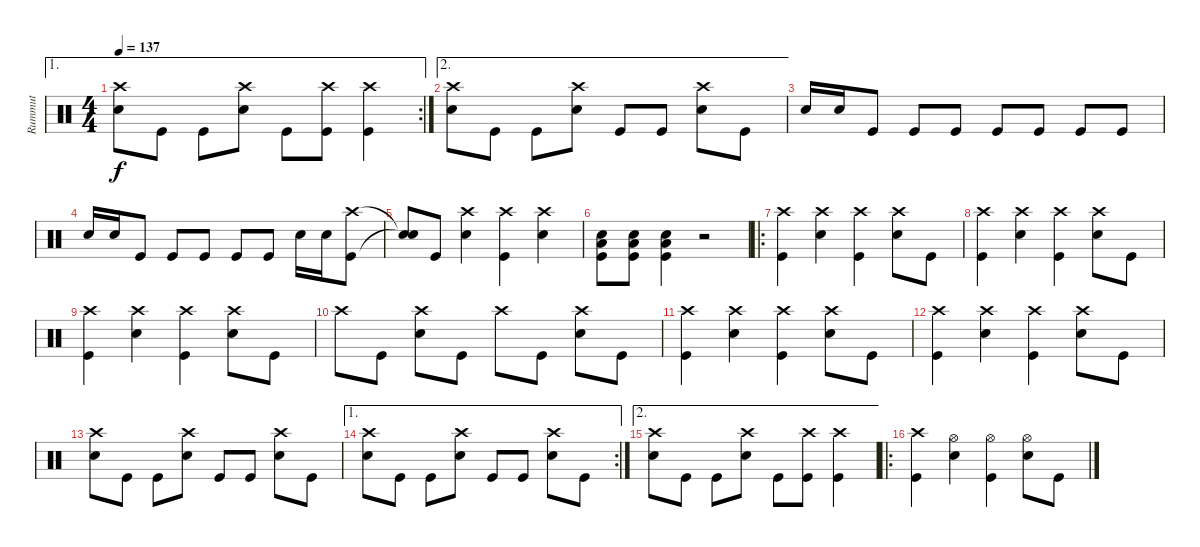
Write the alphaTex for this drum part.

\track ("Rummut" "Rummut") {instrument percussion}
\staff {score}
\articulation defaults
\ae 1
\rc 2
\ts (4 4)
\tempo 137
\clef neutral
\ks c
("Snare (hit) 2" "Crash high (hit)").8{dy f} "Kick (hit)".8 "Kick (hit)".8 ("Snare (hit) 2" "Crash high (hit)").8 "Kick (hit)".8 ("Kick (hit)" "Crash high (hit)").8 ("Kick (hit)" "Crash high (hit)").4 |
\ae 2
("Snare (hit) 2" "Crash high (hit)").8 "Kick (hit)".8 "Kick (hit)".8 ("Snare (hit) 2" "Crash high (hit)").8 "Kick (hit)".8 "Kick (hit)".8 ("Snare (hit) 2" "Crash high (hit)").8 "Kick (hit)".8 |
"Snare (hit) 2".16 "Snare (hit) 2".16 "Kick (hit)".8 "Kick (hit)".8 "Kick (hit)".8 "Kick (hit)".8 "Kick (hit)".8 "Kick (hit)".8 "Kick (hit)".8 |
"Snare (hit) 2".16 "Snare (hit) 2".16 "Kick (hit)".8 "Kick (hit)".8 "Kick (hit)".8 "Kick (hit)".8 "Kick (hit)".8 "Snare (hit) 2".16 "Snare (hit) 2".16 ("Kick (hit)" "Crash high (hit)").8 |
("Snare (hit)"{t} "Snare (hit)"{t}).8 "Kick (hit)".8 ("Snare (hit) 2" "Crash high (hit)").4 ("Kick (hit)" "Crash high (hit)").4 ("Snare (hit) 2" "Crash high (hit)").4 |
("Kick (hit)" "Snare (hit) 2" "Low Floor Tom (hit)").8 ("Kick (hit)" "Snare (hit) 2" "Low Floor Tom (hit)").8 ("Kick (hit)" "Snare (hit) 2" "Low Floor Tom (hit)").4 r.2 |
\ro
("Kick (hit)" "Crash high (hit)").4 ("Snare (hit) 2" "Crash high (hit)").4 ("Kick (hit)" "Crash high (hit)").4 ("Snare (hit) 2" "Crash high (hit)").8 "Kick (hit)".8 |
("Kick (hit)" "Crash high (hit)").4 ("Snare (hit) 2" "Crash high (hit)").4 ("Kick (hit)" "Crash high (hit)").4 ("Snare (hit) 2" "Crash high (hit)").8 "Kick (hit)".8 |
("Kick (hit)" "Crash high (hit)").4 ("Snare (hit) 2" "Crash high (hit)").4 ("Kick (hit)" "Crash high (hit)").4 ("Snare (hit) 2" "Crash high (hit)").8 "Kick (hit)".8 |
"Crash high (hit)".8 "Kick (hit)".8 ("Snare (hit) 2" "Crash high (hit)").8 "Kick (hit)".8 "Crash high (hit)".8 "Kick (hit)".8 ("Snare (hit) 2" "Crash high (hit)").8 "Kick (hit)".8 |
("Kick (hit)" "Crash high (hit)").4 ("Snare (hit) 2" "Crash high (hit)").4 ("Kick (hit)" "Crash high (hit)").4 ("Snare (hit) 2" "Crash high (hit)").8 "Kick (hit)".8 |
("Kick (hit)" "Crash high (hit)").4 ("Snare (hit) 2" "Crash high (hit)").4 ("Kick (hit)" "Crash high (hit)").4 ("Snare (hit) 2" "Crash high (hit)").8 "Kick (hit)".8 |
("Snare (hit) 2" "Crash high (hit)").8 "Kick (hit)".8 "Kick (hit)".8 ("Snare (hit) 2" "Crash high (hit)").8 "Kick (hit)".8 "Kick (hit)".8 ("Snare (hit) 2" "Crash high (hit)").8 "Kick (hit)".8 |
\ae 1
\rc 2
("Snare (hit) 2" "Crash high (hit)").8 "Kick (hit)".8 "Kick (hit)".8 ("Snare (hit) 2" "Crash high (hit)").8 "Kick (hit)".8 "Kick (hit)".8 ("Snare (hit) 2" "Crash high (hit)").8 "Kick (hit)".8 |
\ae 2
("Snare (hit) 2" "Crash high (hit)").8 "Kick (hit)".8 "Kick (hit)".8 ("Snare (hit) 2" "Crash high (hit)").8 "Kick (hit)".8 ("Kick (hit)" "Crash high (hit)").8 ("Kick (hit)" "Crash high (hit)").4 |
\ro
("Kick (hit)" "Crash high (hit)").4 ("Snare (hit) 2" "Hi-Hat (open)").4 ("Kick (hit)" "Hi-Hat (open)").4 ("Snare (hit) 2" "Hi-Hat (open)").8 "Kick (hit)".8
